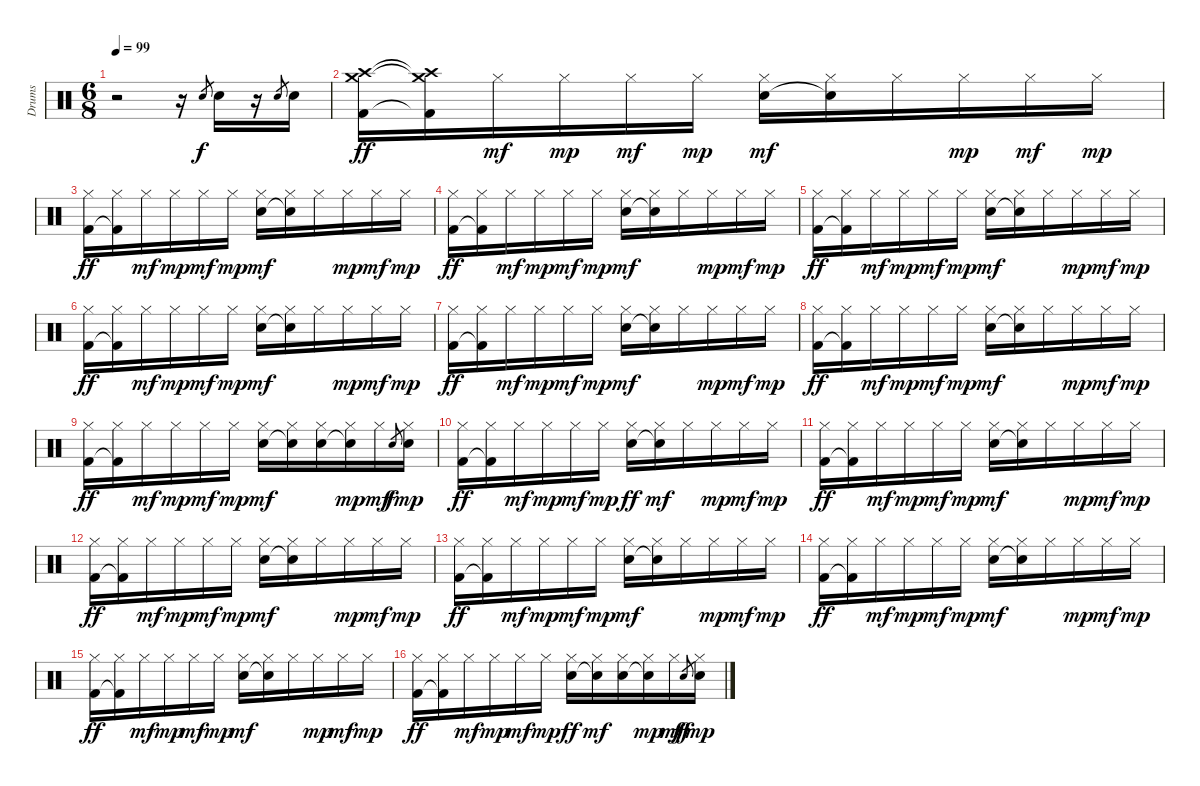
\track ("Drums" "Drums") {instrument percussion}
\staff {score}
\articulation defaults
\ts (6 8)
\tempo 99
\clef neutral
\ks c
r.2{dy f} r.16 "Electric Snare (hit)".8{gr} "Electric Snare (hit)".16 r.16 "Electric Snare (hit)".8{gr} "Electric Snare (hit)".16 |
("Crash high (hit)" "Crash medium (hit)" "Kick (hit) 2").16{dy ff} ("Crash high (hit)"{t} "Crash medium (hit)"{t} "Kick (hit) 2"{t}).16 "Hi-Hat (closed)".16{dy mf} "Hi-Hat (closed)".16{dy mp} "Hi-Hat (closed)".16{dy mf} "Hi-Hat (closed)".16{dy mp} ("Hi-Hat (closed)" "Snare (hit) 2").16{dy mf} ("Hi-Hat (closed)" "Snare (hit) 2"{t}).16 "Hi-Hat (closed)".16 "Hi-Hat (closed)".16{dy mp} "Hi-Hat (closed)".16{dy mf} "Hi-Hat (closed)".16{dy mp} |
("Hi-Hat (closed)" "Kick (hit) 2").16{dy ff} ("Hi-Hat (closed)" "Kick (hit) 2"{t}).16 "Hi-Hat (closed)".16{dy mf} "Hi-Hat (closed)".16{dy mp} "Hi-Hat (closed)".16{dy mf} "Hi-Hat (closed)".16{dy mp} ("Hi-Hat (closed)" "Snare (hit) 2").16{dy mf} ("Hi-Hat (closed)" "Snare (hit) 2"{t}).16 "Hi-Hat (closed)".16 "Hi-Hat (closed)".16{dy mp} "Hi-Hat (closed)".16{dy mf} "Hi-Hat (closed)".16{dy mp} |
("Hi-Hat (closed)" "Kick (hit) 2").16{dy ff} ("Hi-Hat (closed)" "Kick (hit) 2"{t}).16 "Hi-Hat (closed)".16{dy mf} "Hi-Hat (closed)".16{dy mp} "Hi-Hat (closed)".16{dy mf} "Hi-Hat (closed)".16{dy mp} ("Hi-Hat (closed)" "Snare (hit) 2").16{dy mf} ("Hi-Hat (closed)" "Snare (hit) 2"{t}).16 "Hi-Hat (closed)".16 "Hi-Hat (closed)".16{dy mp} "Hi-Hat (closed)".16{dy mf} "Hi-Hat (closed)".16{dy mp} |
("Hi-Hat (closed)" "Kick (hit) 2").16{dy ff} ("Hi-Hat (closed)" "Kick (hit) 2"{t}).16 "Hi-Hat (closed)".16{dy mf} "Hi-Hat (closed)".16{dy mp} "Hi-Hat (closed)".16{dy mf} "Hi-Hat (closed)".16{dy mp} ("Hi-Hat (closed)" "Snare (hit) 2").16{dy mf} ("Hi-Hat (closed)" "Snare (hit) 2"{t}).16 "Hi-Hat (closed)".16 "Hi-Hat (closed)".16{dy mp} "Hi-Hat (closed)".16{dy mf} "Hi-Hat (closed)".16{dy mp} |
("Hi-Hat (closed)" "Kick (hit) 2").16{dy ff} ("Hi-Hat (closed)" "Kick (hit) 2"{t}).16 "Hi-Hat (closed)".16{dy mf} "Hi-Hat (closed)".16{dy mp} "Hi-Hat (closed)".16{dy mf} "Hi-Hat (closed)".16{dy mp} ("Hi-Hat (closed)" "Snare (hit) 2").16{dy mf} ("Hi-Hat (closed)" "Snare (hit) 2"{t}).16 "Hi-Hat (closed)".16 "Hi-Hat (closed)".16{dy mp} "Hi-Hat (closed)".16{dy mf} "Hi-Hat (closed)".16{dy mp} |
("Hi-Hat (closed)" "Kick (hit) 2").16{dy ff} ("Hi-Hat (closed)" "Kick (hit) 2"{t}).16 "Hi-Hat (closed)".16{dy mf} "Hi-Hat (closed)".16{dy mp} "Hi-Hat (closed)".16{dy mf} "Hi-Hat (closed)".16{dy mp} ("Hi-Hat (closed)" "Snare (hit) 2").16{dy mf} ("Hi-Hat (closed)" "Snare (hit) 2"{t}).16 "Hi-Hat (closed)".16 "Hi-Hat (closed)".16{dy mp} "Hi-Hat (closed)".16{dy mf} "Hi-Hat (closed)".16{dy mp} |
("Hi-Hat (closed)" "Kick (hit) 2").16{dy ff} ("Hi-Hat (closed)" "Kick (hit) 2"{t}).16 "Hi-Hat (closed)".16{dy mf} "Hi-Hat (closed)".16{dy mp} "Hi-Hat (closed)".16{dy mf} "Hi-Hat (closed)".16{dy mp} ("Hi-Hat (closed)" "Snare (hit) 2").16{dy mf} ("Hi-Hat (closed)" "Snare (hit) 2"{t}).16 "Hi-Hat (closed)".16 "Hi-Hat (closed)".16{dy mp} "Hi-Hat (closed)".16{dy mf} "Hi-Hat (closed)".16{dy mp} |
("Hi-Hat (closed)" "Kick (hit) 2").16{dy ff} ("Hi-Hat (closed)" "Kick (hit) 2"{t}).16 "Hi-Hat (closed)".16{dy mf} "Hi-Hat (closed)".16{dy mp} "Hi-Hat (closed)".16{dy mf} "Hi-Hat (closed)".16{dy mp} ("Hi-Hat (closed)" "Snare (hit) 2").16{dy mf} ("Hi-Hat (closed)" "Snare (hit) 2"{t}).16 ("Hi-Hat (closed)" "Snare (hit) 2").16 ("Hi-Hat (closed)" "Snare (hit) 2"{t}).16{dy mp} "Hi-Hat (closed)".16{dy mf} "Electric Snare (hit)".8{gr dy f} ("Hi-Hat (closed)" "Electric Snare (hit)").16{dy mp} |
("Hi-Hat (closed)" "Kick (hit) 2").16{dy ff} ("Hi-Hat (closed)" "Kick (hit) 2"{t}).16 "Hi-Hat (closed)".16{dy mf} "Hi-Hat (closed)".16{dy mp} "Hi-Hat (closed)".16{dy mf} "Hi-Hat (closed)".16{dy mp} ("Hi-Hat (closed)" "Electric Snare (hit)").16{dy ff} ("Hi-Hat (closed)" "Snare (hit) 2"{t}).16{dy mf} "Hi-Hat (closed)".16 "Hi-Hat (closed)".16{dy mp} "Hi-Hat (closed)".16{dy mf} "Hi-Hat (closed)".16{dy mp} |
("Hi-Hat (closed)" "Kick (hit) 2").16{dy ff} ("Hi-Hat (closed)" "Kick (hit) 2"{t}).16 "Hi-Hat (closed)".16{dy mf} "Hi-Hat (closed)".16{dy mp} "Hi-Hat (closed)".16{dy mf} "Hi-Hat (closed)".16{dy mp} ("Hi-Hat (closed)" "Snare (hit) 2").16{dy mf} ("Hi-Hat (closed)" "Snare (hit) 2"{t}).16 "Hi-Hat (closed)".16 "Hi-Hat (closed)".16{dy mp} "Hi-Hat (closed)".16{dy mf} "Hi-Hat (closed)".16{dy mp} |
("Hi-Hat (closed)" "Kick (hit) 2").16{dy ff} ("Hi-Hat (closed)" "Kick (hit) 2"{t}).16 "Hi-Hat (closed)".16{dy mf} "Hi-Hat (closed)".16{dy mp} "Hi-Hat (closed)".16{dy mf} "Hi-Hat (closed)".16{dy mp} ("Hi-Hat (closed)" "Snare (hit) 2").16{dy mf} ("Hi-Hat (closed)" "Snare (hit) 2"{t}).16 "Hi-Hat (closed)".16 "Hi-Hat (closed)".16{dy mp} "Hi-Hat (closed)".16{dy mf} "Hi-Hat (closed)".16{dy mp} |
("Hi-Hat (closed)" "Kick (hit) 2").16{dy ff} ("Hi-Hat (closed)" "Kick (hit) 2"{t}).16 "Hi-Hat (closed)".16{dy mf} "Hi-Hat (closed)".16{dy mp} "Hi-Hat (closed)".16{dy mf} "Hi-Hat (closed)".16{dy mp} ("Hi-Hat (closed)" "Snare (hit) 2").16{dy mf} ("Hi-Hat (closed)" "Snare (hit) 2"{t}).16 "Hi-Hat (closed)".16 "Hi-Hat (closed)".16{dy mp} "Hi-Hat (closed)".16{dy mf} "Hi-Hat (closed)".16{dy mp} |
("Hi-Hat (closed)" "Kick (hit) 2").16{dy ff} ("Hi-Hat (closed)" "Kick (hit) 2"{t}).16 "Hi-Hat (closed)".16{dy mf} "Hi-Hat (closed)".16{dy mp} "Hi-Hat (closed)".16{dy mf} "Hi-Hat (closed)".16{dy mp} ("Hi-Hat (closed)" "Snare (hit) 2").16{dy mf} ("Hi-Hat (closed)" "Snare (hit) 2"{t}).16 "Hi-Hat (closed)".16 "Hi-Hat (closed)".16{dy mp} "Hi-Hat (closed)".16{dy mf} "Hi-Hat (closed)".16{dy mp} |
("Hi-Hat (closed)" "Kick (hit) 2").16{dy ff} ("Hi-Hat (closed)" "Kick (hit) 2"{t}).16 "Hi-Hat (closed)".16{dy mf} "Hi-Hat (closed)".16{dy mp} "Hi-Hat (closed)".16{dy mf} "Hi-Hat (closed)".16{dy mp} ("Hi-Hat (closed)" "Snare (hit) 2").16{dy mf} ("Hi-Hat (closed)" "Snare (hit) 2"{t}).16 "Hi-Hat (closed)".16 "Hi-Hat (closed)".16{dy mp} "Hi-Hat (closed)".16{dy mf} "Hi-Hat (closed)".16{dy mp} |
("Hi-Hat (closed)" "Kick (hit) 2").16{dy ff} ("Hi-Hat (closed)" "Kick (hit) 2"{t}).16 "Hi-Hat (closed)".16{dy mf} "Hi-Hat (closed)".16{dy mp} "Hi-Hat (closed)".16{dy mf} "Hi-Hat (closed)".16{dy mp} ("Hi-Hat (closed)" "Electric Snare (hit)").16{dy ff} ("Hi-Hat (closed)" "Snare (hit) 2"{t}).16{dy mf} ("Hi-Hat (closed)" "Electric Snare (hit)").16 ("Hi-Hat (closed)" "Snare (hit) 2"{t}).16{dy mp} "Hi-Hat (closed)".16{dy mf} "Electric Snare (hit)".8{gr dy ff} ("Hi-Hat (closed)" "Electric Snare (hit)").16{dy mp}
